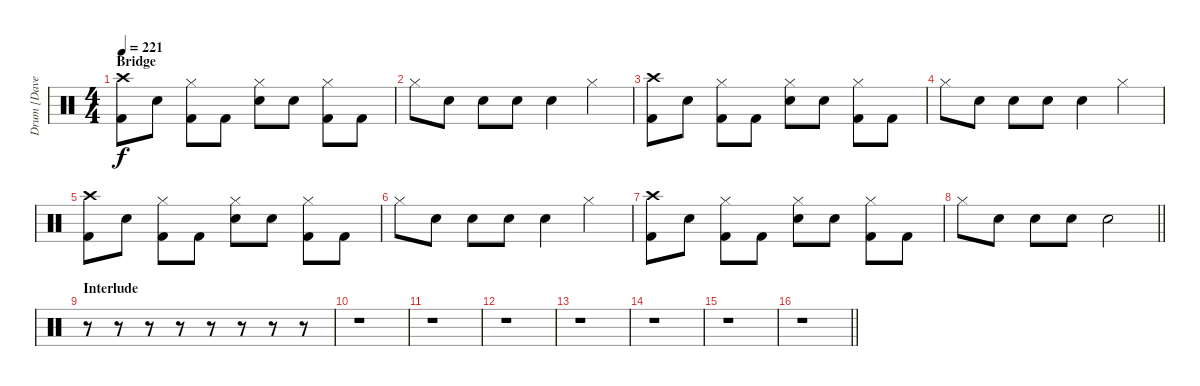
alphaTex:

\track ("Drum [Dave Grohl]" "Drum [Dave") {instrument percussion bank 255}
\staff {score}
\articulation defaults
\ts (4 4)
\section ("" "Bridge")
\tempo 221
\clef neutral
\ks c
("Crash high (hit)" "Kick (hit) 2").8{dy f} "Snare (hit) 2".8 ("Hi-Hat (closed)" "Kick (hit) 2").8 "Kick (hit) 2".8 ("Hi-Hat (closed)" "Snare (hit) 2").8 "Snare (hit) 2".8 ("Hi-Hat (closed)" "Kick (hit) 2").8 "Kick (hit) 2".8 |
"Hi-Hat (closed)".8 "Snare (hit) 2".8 "Snare (hit) 2".8 "Snare (hit) 2".8 "Snare (hit) 2".4 "Hi-Hat (closed)".4 |
("Crash high (hit)" "Kick (hit) 2").8 "Snare (hit) 2".8 ("Hi-Hat (closed)" "Kick (hit) 2").8 "Kick (hit) 2".8 ("Hi-Hat (closed)" "Snare (hit) 2").8 "Snare (hit) 2".8 ("Hi-Hat (closed)" "Kick (hit) 2").8 "Kick (hit) 2".8 |
"Hi-Hat (closed)".8 "Snare (hit) 2".8 "Snare (hit) 2".8 "Snare (hit) 2".8 "Snare (hit) 2".4 "Hi-Hat (closed)".4 |
("Crash high (hit)" "Kick (hit) 2").8 "Snare (hit) 2".8 ("Hi-Hat (closed)" "Kick (hit) 2").8 "Kick (hit) 2".8 ("Hi-Hat (closed)" "Snare (hit) 2").8 "Snare (hit) 2".8 ("Hi-Hat (closed)" "Kick (hit) 2").8 "Kick (hit) 2".8 |
"Hi-Hat (closed)".8 "Snare (hit) 2".8 "Snare (hit) 2".8 "Snare (hit) 2".8 "Snare (hit) 2".4 "Hi-Hat (closed)".4 |
("Crash high (hit)" "Kick (hit) 2").8 "Snare (hit) 2".8 ("Hi-Hat (closed)" "Kick (hit) 2").8 "Kick (hit) 2".8 ("Hi-Hat (closed)" "Snare (hit) 2").8 "Snare (hit) 2".8 ("Hi-Hat (closed)" "Kick (hit) 2").8 "Kick (hit) 2".8 |
\barLineRight lightlight "Hi-Hat (closed)".8 "Snare (hit) 2".8 "Snare (hit) 2".8 "Snare (hit) 2".8 "Snare (hit) 2".2
|
\section ("" "Interlude")
r.8 r.8 r.8 r.8 r.8 r.8 r.8 r.8 |
r.1 |
r.1 |
r.1 |
r.1 |
r.1 |
r.1 |
\barLineRight lightlight
r.1
